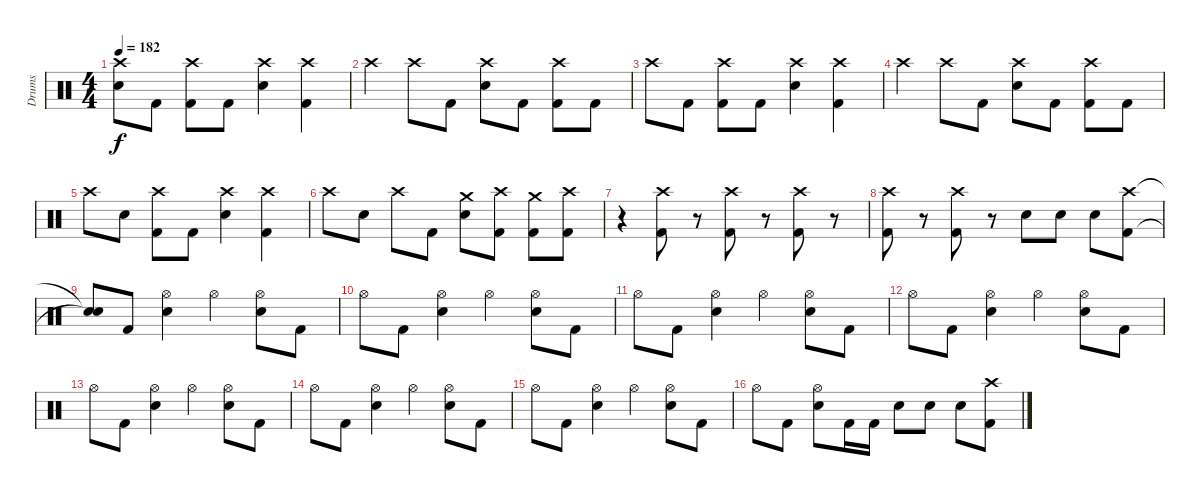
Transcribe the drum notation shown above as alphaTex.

\track ("Drums" "Drums") {instrument percussion}
\staff {score}
\articulation defaults
\ts (4 4)
\tempo 182
\clef neutral
\ks c
("Crash high (hit)"{t} "Snare (hit)"{t}).8{dy f} "Kick (hit) 2".8 ("Crash high (hit)" "Kick (hit) 2").8 "Kick (hit) 2".8 ("Crash high (hit)" "Electric Snare (hit)").4 ("Crash high (hit)" "Kick (hit) 2").4 |
"Crash high (hit)".4 "Crash high (hit)".8 "Kick (hit) 2".8 ("Crash high (hit)" "Electric Snare (hit)").8 "Kick (hit) 2".8 ("Crash high (hit)" "Kick (hit) 2").8 "Kick (hit) 2".8 |
"Crash high (hit)".8 "Kick (hit) 2".8 ("Crash high (hit)" "Kick (hit) 2").8 "Kick (hit) 2".8 ("Crash high (hit)" "Electric Snare (hit)").4 ("Crash high (hit)" "Kick (hit) 2").4 |
"Crash high (hit)".4 "Crash high (hit)".8 "Kick (hit) 2".8 ("Crash high (hit)" "Electric Snare (hit)").8 "Kick (hit) 2".8 ("Crash high (hit)" "Kick (hit) 2").8 "Kick (hit) 2".8 |
"Crash high (hit)".8 "Electric Snare (hit)".8 ("Crash high (hit)" "Kick (hit) 2").8 "Kick (hit) 2".8 ("Crash high (hit)" "Electric Snare (hit)").4 ("Crash high (hit)" "Kick (hit) 2").4 |
"Crash high (hit)".8 "Electric Snare (hit)".8 "Crash high (hit)".8 "Kick (hit) 2".8 ("Crash medium (hit)" "Electric Snare (hit)").8 ("Crash high (hit)" "Kick (hit) 2").8 ("Crash medium (hit)" "Kick (hit) 2").8 ("Crash high (hit)" "Kick (hit) 2").8 |
r.4{volume 0} ("Crash high (hit)" "Kick (hit) 2").8{volume 15} r.8{volume 0} ("Crash high (hit)" "Kick (hit) 2").8{volume 15} r.8{volume 0} ("Crash high (hit)" "Kick (hit) 2").8{volume 15} r.8{volume 0} |
("Crash high (hit)" "Kick (hit) 2").8{volume 15} r.8{volume 0} ("Crash high (hit)" "Kick (hit) 2").8{volume 15} r.8{volume 0} "Electric Snare (hit)".8{volume 15} "Electric Snare (hit)".8 "Electric Snare (hit)".8 ("Crash high (hit)" "Kick (hit) 2").8 |
("Snare (hit)"{t} "Snare (hit)"{t}).8 "Kick (hit) 2".8 ("Hi-Hat (open)" "Electric Snare (hit)").4 "Hi-Hat (open)".4 ("Hi-Hat (open)" "Electric Snare (hit)").8 "Kick (hit) 2".8 |
"Hi-Hat (open)".8 "Kick (hit) 2".8 ("Hi-Hat (open)" "Electric Snare (hit)").4 "Hi-Hat (open)".4 ("Hi-Hat (open)" "Electric Snare (hit)").8 "Kick (hit) 2".8 |
"Hi-Hat (open)".8 "Kick (hit) 2".8 ("Hi-Hat (open)" "Electric Snare (hit)").4 "Hi-Hat (open)".4 ("Hi-Hat (open)" "Electric Snare (hit)").8 "Kick (hit) 2".8 |
"Hi-Hat (open)".8 "Kick (hit) 2".8 ("Hi-Hat (open)" "Electric Snare (hit)").4 "Hi-Hat (open)".4 ("Hi-Hat (open)" "Electric Snare (hit)").8 "Kick (hit) 2".8 |
"Hi-Hat (open)".8 "Kick (hit) 2".8 ("Hi-Hat (open)" "Electric Snare (hit)").4 "Hi-Hat (open)".4 ("Hi-Hat (open)" "Electric Snare (hit)").8 "Kick (hit) 2".8 |
"Hi-Hat (open)".8 "Kick (hit) 2".8 ("Hi-Hat (open)" "Electric Snare (hit)").4 "Hi-Hat (open)".4 ("Hi-Hat (open)" "Electric Snare (hit)").8 "Kick (hit) 2".8 |
"Hi-Hat (open)".8 "Kick (hit) 2".8 ("Hi-Hat (open)" "Electric Snare (hit)").4 "Hi-Hat (open)".4 ("Hi-Hat (open)" "Electric Snare (hit)").8 "Kick (hit) 2".8 |
"Hi-Hat (open)".8 "Kick (hit) 2".8 ("Hi-Hat (open)" "Electric Snare (hit)").8 "Kick (hit) 2".16 "Kick (hit) 2".16 "Electric Snare (hit)".8 "Electric Snare (hit)".8 "Electric Snare (hit)".8 ("Crash high (hit)" "Kick (hit) 2").8
